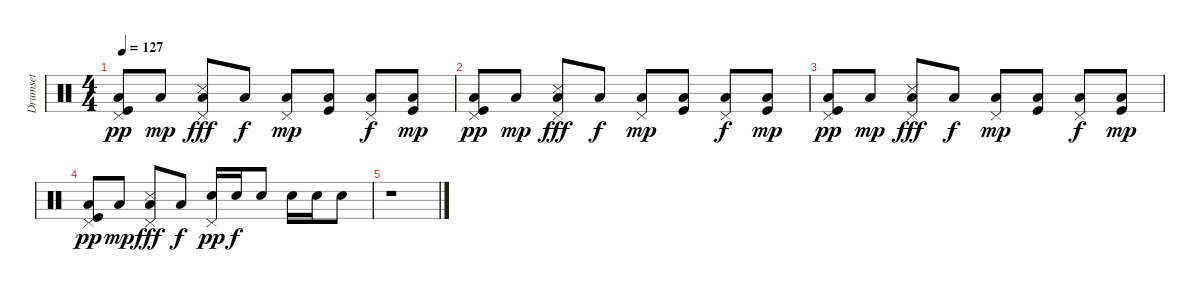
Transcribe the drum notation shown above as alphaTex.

\track ("Drumset" "Drumset") {instrument percussion}
\staff {score}
\articulation defaults
\ts (4 4)
\tempo 127
\clef neutral
\ks c
("Pedal Hi-Hat (hit)" "Low Floor Tom (hit)" "Kick (hit)").8{dy pp} "Low Floor Tom (hit)".8{dy mp} ("Pedal Hi-Hat (hit)" "Snare (side stick) 3" "Low Floor Tom (hit)").8{dy fff} "Low Floor Tom (hit)".8{dy f} ("Pedal Hi-Hat (hit)" "Low Floor Tom (hit)").8{dy mp} ("Low Floor Tom (hit)" "Kick (hit)").8 ("Pedal Hi-Hat (hit)" "Low Floor Tom (hit)").8{dy f} ("Low Floor Tom (hit)" "Kick (hit)").8{dy mp} |
("Pedal Hi-Hat (hit)" "Low Floor Tom (hit)" "Kick (hit)").8{dy pp} "Low Floor Tom (hit)".8{dy mp} ("Pedal Hi-Hat (hit)" "Snare (side stick) 3" "Low Floor Tom (hit)").8{dy fff} "Low Floor Tom (hit)".8{dy f} ("Pedal Hi-Hat (hit)" "Low Floor Tom (hit)").8{dy mp} ("Low Floor Tom (hit)" "Kick (hit)").8 ("Pedal Hi-Hat (hit)" "Low Floor Tom (hit)").8{dy f} ("Low Floor Tom (hit)" "Kick (hit)").8{dy mp} |
("Pedal Hi-Hat (hit)" "Low Floor Tom (hit)" "Kick (hit)").8{dy pp} "Low Floor Tom (hit)".8{dy mp} ("Pedal Hi-Hat (hit)" "Snare (side stick) 3" "Low Floor Tom (hit)").8{dy fff} "Low Floor Tom (hit)".8{dy f} ("Pedal Hi-Hat (hit)" "Low Floor Tom (hit)").8{dy mp} ("Low Floor Tom (hit)" "Kick (hit)").8 ("Pedal Hi-Hat (hit)" "Low Floor Tom (hit)").8{dy f} ("Low Floor Tom (hit)" "Kick (hit)").8{dy mp} |
("Pedal Hi-Hat (hit)" "Low Floor Tom (hit)" "Kick (hit)").8{dy pp} "Low Floor Tom (hit)".8{dy mp} ("Pedal Hi-Hat (hit)" "Snare (side stick) 3" "Low Floor Tom (hit)").8{dy fff} "Low Floor Tom (hit)".8{dy f} ("Pedal Hi-Hat (hit)" "Electric Snare (hit)").16{dy pp} "Electric Snare (hit)".16{dy f} "Electric Snare (hit)".8 "Electric Snare (hit)".16 "Electric Snare (hit)".16 "Electric Snare (hit)".8 |
r.1
